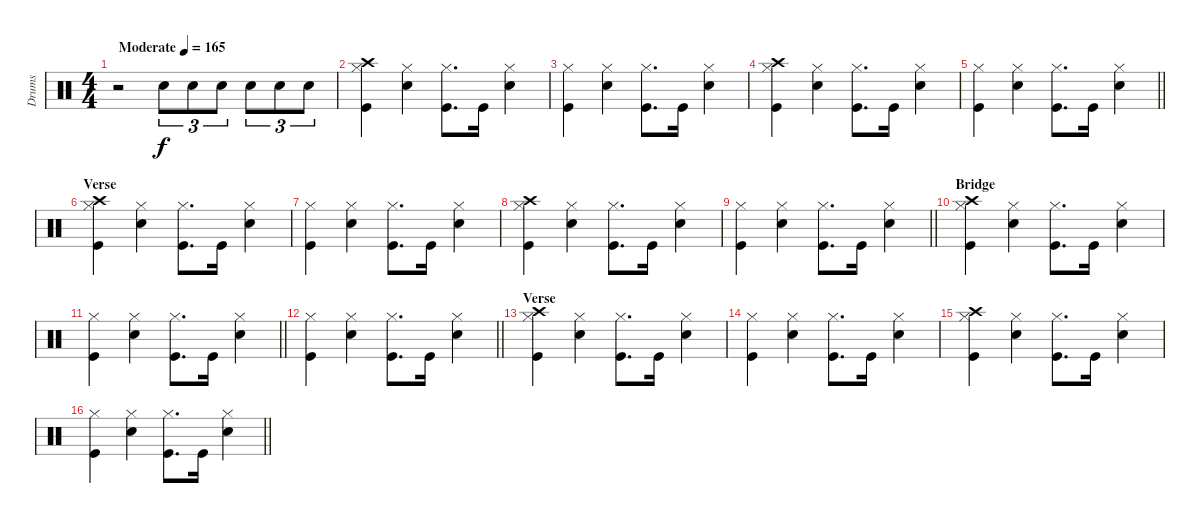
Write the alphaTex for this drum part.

\track ("Drums" "Drums") {instrument percussion}
\staff {score}
\articulation defaults
\ts (4 4)
\tempo (165 "Moderate")
\clef neutral
\ks c
r.2{dy f} "Snare (hit) 2".8{tu (3 2)} "Snare (hit) 2".8{tu (3 2)} "Snare (hit) 2".8{tu (3 2)} "Snare (hit) 2".8{tu (3 2)} "Snare (hit) 2".8{tu (3 2)} "Snare (hit) 2".8{tu (3 2)} |
("Kick (hit)" "Crash high (hit)" "Hi-Hat (closed)").4 ("Snare (hit) 2" "Hi-Hat (closed)").4 ("Kick (hit)" "Hi-Hat (closed)").8{d} "Kick (hit)".16 ("Snare (hit) 2" "Hi-Hat (closed)").4 |
("Kick (hit)" "Hi-Hat (closed)").4 ("Snare (hit) 2" "Hi-Hat (closed)").4 ("Kick (hit)" "Hi-Hat (closed)").8{d} "Kick (hit)".16 ("Snare (hit) 2" "Hi-Hat (closed)").4 |
("Kick (hit)" "Crash high (hit)" "Hi-Hat (closed)").4 ("Snare (hit) 2" "Hi-Hat (closed)").4 ("Kick (hit)" "Hi-Hat (closed)").8{d} "Kick (hit)".16 ("Snare (hit) 2" "Hi-Hat (closed)").4 |
\barLineRight lightlight
("Kick (hit)" "Hi-Hat (closed)").4 ("Snare (hit) 2" "Hi-Hat (closed)").4 ("Kick (hit)" "Hi-Hat (closed)").8{d} "Kick (hit)".16 ("Snare (hit) 2" "Hi-Hat (closed)").4 |
\section ("" "Verse")
("Kick (hit)" "Crash high (hit)" "Hi-Hat (closed)").4 ("Snare (hit) 2" "Hi-Hat (closed)").4 ("Kick (hit)" "Hi-Hat (closed)").8{d} "Kick (hit)".16 ("Snare (hit) 2" "Hi-Hat (closed)").4 |
("Kick (hit)" "Hi-Hat (closed)").4 ("Snare (hit) 2" "Hi-Hat (closed)").4 ("Kick (hit)" "Hi-Hat (closed)").8{d} "Kick (hit)".16 ("Snare (hit) 2" "Hi-Hat (closed)").4 |
("Kick (hit)" "Crash high (hit)" "Hi-Hat (closed)").4 ("Snare (hit) 2" "Hi-Hat (closed)").4 ("Kick (hit)" "Hi-Hat (closed)").8{d} "Kick (hit)".16 ("Snare (hit) 2" "Hi-Hat (closed)").4 |
\barLineRight lightlight
("Kick (hit)" "Hi-Hat (closed)").4 ("Snare (hit) 2" "Hi-Hat (closed)").4 ("Kick (hit)" "Hi-Hat (closed)").8{d} "Kick (hit)".16 ("Snare (hit) 2" "Hi-Hat (closed)").4 |
\section ("" "Bridge")
("Kick (hit)" "Crash high (hit)" "Hi-Hat (closed)").4 ("Snare (hit) 2" "Hi-Hat (closed)").4 ("Kick (hit)" "Hi-Hat (closed)").8{d} "Kick (hit)".16 ("Snare (hit) 2" "Hi-Hat (closed)").4 |
\barLineRight lightlight
("Kick (hit)" "Hi-Hat (closed)").4 ("Snare (hit) 2" "Hi-Hat (closed)").4 ("Kick (hit)" "Hi-Hat (closed)").8{d} "Kick (hit)".16 ("Snare (hit) 2" "Hi-Hat (closed)").4 |
\barLineRight lightlight
("Kick (hit)" "Hi-Hat (closed)").4 ("Snare (hit) 2" "Hi-Hat (closed)").4 ("Kick (hit)" "Hi-Hat (closed)").8{d} "Kick (hit)".16 ("Snare (hit) 2" "Hi-Hat (closed)").4 |
\section ("" "Verse")
("Kick (hit)" "Crash high (hit)" "Hi-Hat (closed)").4 ("Snare (hit) 2" "Hi-Hat (closed)").4 ("Kick (hit)" "Hi-Hat (closed)").8{d} "Kick (hit)".16 ("Snare (hit) 2" "Hi-Hat (closed)").4 |
("Kick (hit)" "Hi-Hat (closed)").4 ("Snare (hit) 2" "Hi-Hat (closed)").4 ("Kick (hit)" "Hi-Hat (closed)").8{d} "Kick (hit)".16 ("Snare (hit) 2" "Hi-Hat (closed)").4 |
("Kick (hit)" "Crash high (hit)" "Hi-Hat (closed)").4 ("Snare (hit) 2" "Hi-Hat (closed)").4 ("Kick (hit)" "Hi-Hat (closed)").8{d} "Kick (hit)".16 ("Snare (hit) 2" "Hi-Hat (closed)").4 |
\barLineRight lightlight
("Kick (hit)" "Hi-Hat (closed)").4 ("Snare (hit) 2" "Hi-Hat (closed)").4 ("Kick (hit)" "Hi-Hat (closed)").8{d} "Kick (hit)".16 ("Snare (hit) 2" "Hi-Hat (closed)").4
